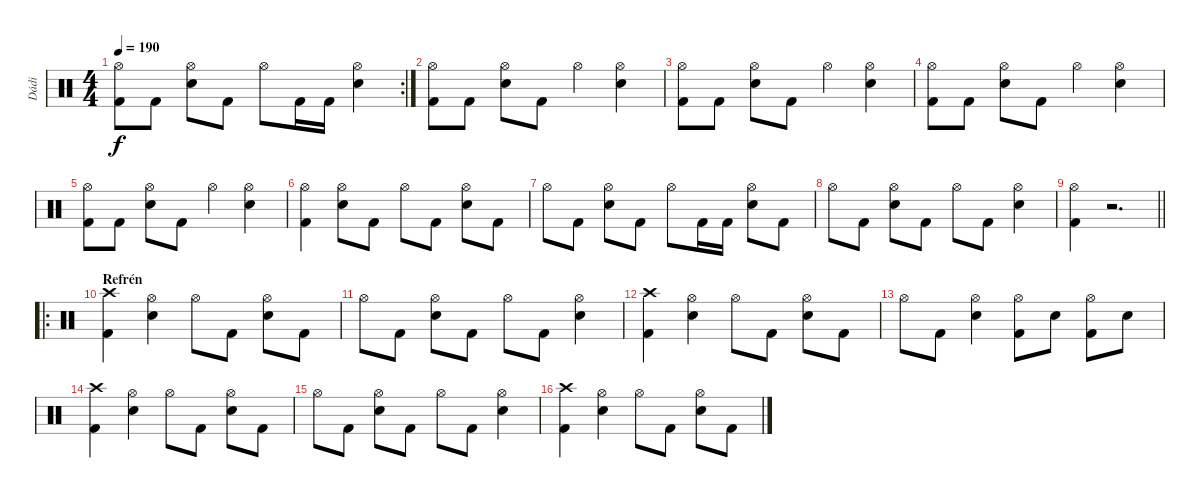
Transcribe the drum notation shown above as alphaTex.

\track ("Dádi" "Dádi") {instrument percussion}
\staff {score}
\articulation defaults
\rc 2
\ts (4 4)
\tempo 190
\clef neutral
\ks c
("Hi-Hat (open)" "Kick (hit) 2").8{dy f} "Kick (hit) 2".8 ("Hi-Hat (open)" "Electric Snare (hit)").8 "Kick (hit) 2".8 "Hi-Hat (open)".8 "Kick (hit) 2".16 "Kick (hit) 2".16 ("Hi-Hat (open)" "Electric Snare (hit)").4 |
("Kick (hit) 2" "Hi-Hat (open)").8 "Kick (hit) 2".8 ("Electric Snare (hit)" "Hi-Hat (open)").8 "Kick (hit) 2".8 "Hi-Hat (open)".4 ("Hi-Hat (open)" "Electric Snare (hit)").4 |
("Kick (hit) 2" "Hi-Hat (open)").8 "Kick (hit) 2".8 ("Hi-Hat (open)" "Electric Snare (hit)").8 "Kick (hit) 2".8 "Hi-Hat (open)".4 ("Hi-Hat (open)" "Electric Snare (hit)").4 |
("Kick (hit) 2" "Hi-Hat (open)").8 "Kick (hit) 2".8 ("Hi-Hat (open)" "Electric Snare (hit)").8 "Kick (hit) 2".8 "Hi-Hat (open)".4 ("Hi-Hat (open)" "Electric Snare (hit)").4 |
("Kick (hit) 2" "Hi-Hat (open)").8 "Kick (hit) 2".8 ("Hi-Hat (open)" "Electric Snare (hit)").8 "Kick (hit) 2".8 "Hi-Hat (open)".4 ("Hi-Hat (open)" "Electric Snare (hit)").4 |
("Kick (hit) 2" "Hi-Hat (open)").4 ("Hi-Hat (open)" "Electric Snare (hit)").8 "Kick (hit) 2".8 "Hi-Hat (open)".8 "Kick (hit) 2".8 ("Hi-Hat (open)" "Electric Snare (hit)").8 "Kick (hit) 2".8 |
"Hi-Hat (open)".8 "Kick (hit) 2".8 ("Electric Snare (hit)" "Hi-Hat (open)").8 "Kick (hit) 2".8 "Hi-Hat (open)".8 "Kick (hit) 2".16 "Kick (hit) 2".16 ("Hi-Hat (open)" "Electric Snare (hit)").8 "Kick (hit) 2".8 |
"Hi-Hat (open)".8 "Kick (hit) 2".8 ("Hi-Hat (open)" "Electric Snare (hit)").8 "Kick (hit) 2".8 "Hi-Hat (open)".8 "Kick (hit) 2".8 ("Hi-Hat (open)" "Electric Snare (hit)").4 |
\barLineRight lightlight
("Kick (hit) 2" "Hi-Hat (open)").4 r.2{d} |
\ro
\section ("" "Refrén")
("Kick (hit) 2" "Crash high (hit)").4 ("Hi-Hat (open)" "Electric Snare (hit)").4 "Hi-Hat (open)".8 "Kick (hit) 2".8 ("Electric Snare (hit)" "Hi-Hat (open)").8 "Kick (hit) 2".8 |
"Hi-Hat (open)".8 "Kick (hit) 2".8 ("Electric Snare (hit)" "Hi-Hat (open)").8 "Kick (hit) 2".8 "Hi-Hat (open)".8 "Kick (hit) 2".8 ("Electric Snare (hit)" "Hi-Hat (open)").4 |
("Crash high (hit)" "Kick (hit) 2").4 ("Hi-Hat (open)" "Electric Snare (hit)").4 "Hi-Hat (open)".8 "Kick (hit) 2".8 ("Hi-Hat (open)" "Electric Snare (hit)").8 "Kick (hit) 2".8 |
"Hi-Hat (open)".8 "Kick (hit) 2".8 ("Hi-Hat (open)" "Electric Snare (hit)").4 ("Hi-Hat (open)" "Kick (hit) 2").8 "Electric Snare (hit)".8 ("Hi-Hat (open)" "Kick (hit) 2").8 "Electric Snare (hit)".8 |
("Crash high (hit)" "Kick (hit) 2").4 ("Hi-Hat (open)" "Electric Snare (hit)").4 "Hi-Hat (open)".8 "Kick (hit) 2".8 ("Hi-Hat (open)" "Electric Snare (hit)").8 "Kick (hit) 2".8 |
"Hi-Hat (open)".8 "Kick (hit) 2".8 ("Hi-Hat (open)" "Electric Snare (hit)").8 "Kick (hit) 2".8 "Hi-Hat (open)".8 "Kick (hit) 2".8 ("Hi-Hat (open)" "Electric Snare (hit)").4 |
("Kick (hit) 2" "Crash high (hit)").4 ("Hi-Hat (open)" "Electric Snare (hit)").4 "Hi-Hat (open)".8 "Kick (hit) 2".8 ("Hi-Hat (open)" "Electric Snare (hit)").8 "Kick (hit) 2".8
